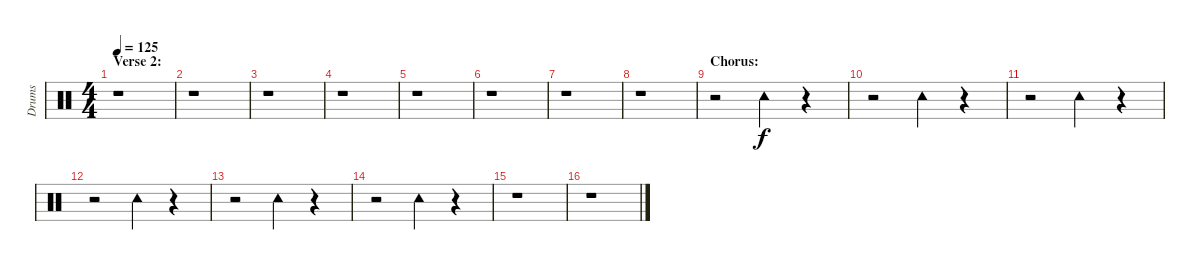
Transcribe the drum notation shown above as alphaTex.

\track ("Drums" "Drums") {instrument percussion}
\staff {score}
\articulation defaults
\ts (4 4)
\section ("" "Verse 2:")
\tempo 125
\clef neutral
\ks c
r.1{dy f} |
r.1 |
r.1 |
r.1 |
r.1 |
r.1 |
r.1 |
r.1 |
\section ("" "Chorus:")
r.2 "Tambourine (hit)".4 r.4 |
r.2 "Tambourine (hit)".4 r.4 |
r.2 "Tambourine (hit)".4 r.4 |
r.2 "Tambourine (hit)".4 r.4 |
r.2 "Tambourine (hit)".4 r.4 |
r.2 "Tambourine (hit)".4 r.4 |
r.1 |
r.1
